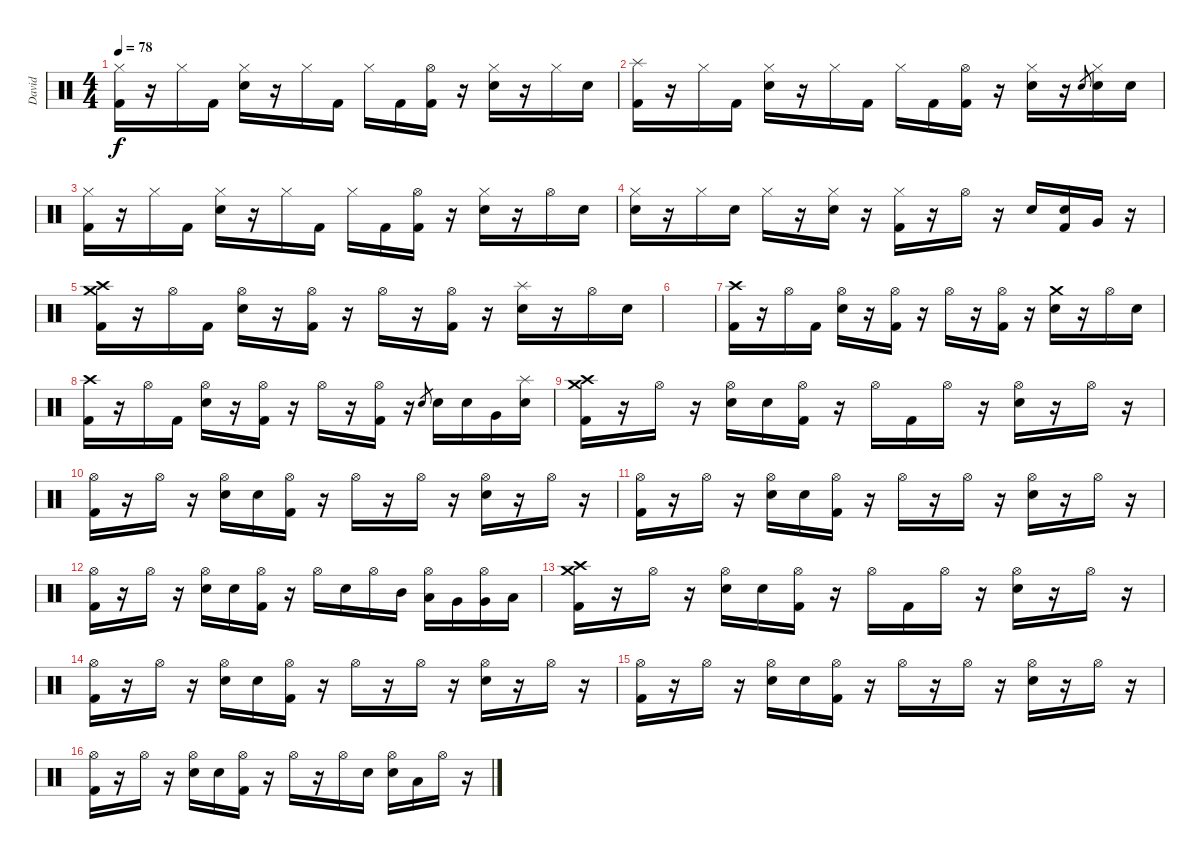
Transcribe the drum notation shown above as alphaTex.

\track ("David" "David") {instrument percussion}
\staff {score}
\articulation defaults
\ts (4 4)
\tempo 78
\clef neutral
\ks c
("Hi-Hat (closed)" "Kick (hit) 2").16{dy f} r.16 "Hi-Hat (closed)".16 "Kick (hit) 2".16 ("Hi-Hat (closed)" "Snare (hit) 2").16 r.16 "Hi-Hat (closed)".16 "Kick (hit) 2".16 "Hi-Hat (closed)".16 "Kick (hit) 2".16 ("Hi-Hat (open)" "Kick (hit) 2").16 r.16 ("Hi-Hat (closed)" "Snare (hit) 2").16 r.16 "Hi-Hat (closed)".16 "Snare (hit) 2".16 |
("Splash (hit)" "Kick (hit) 2").16 r.16 "Hi-Hat (closed)".16 "Kick (hit) 2".16 ("Hi-Hat (closed)" "Snare (hit) 2").16 r.16 "Hi-Hat (closed)".16 "Kick (hit) 2".16 "Hi-Hat (closed)".16 "Kick (hit) 2".16 ("Hi-Hat (open)" "Kick (hit) 2").16 r.16 ("Hi-Hat (closed)" "Snare (hit) 2").16 r.16 "Snare (hit) 2".8{gr} ("Hi-Hat (closed)" "Snare (hit) 2").16 "Snare (hit) 2".16 |
("Hi-Hat (closed)" "Kick (hit) 2").16 r.16 "Hi-Hat (closed)".16 "Kick (hit) 2".16 ("Hi-Hat (closed)" "Snare (hit) 2").16 r.16 "Hi-Hat (closed)".16 "Kick (hit) 2".16 "Hi-Hat (closed)".16 "Kick (hit) 2".16 ("Hi-Hat (open)" "Kick (hit) 2").16 r.16 ("Hi-Hat (closed)" "Snare (hit) 2").16 r.16 "Hi-Hat (open)".16 "Snare (hit) 2".16 |
("Hi-Hat (closed)" "Snare (hit) 2").16 r.16 "Hi-Hat (closed)".16 "Snare (hit) 2".16 "Hi-Hat (closed)".16 r.16 ("Hi-Hat (closed)" "Snare (hit) 2").16 r.16 ("Hi-Hat (closed)" "Kick (hit) 2").16 r.16 "Hi-Hat (open)".16 r.16 "Snare (hit) 2".16 ("Snare (hit) 2" "Kick (hit) 2").16 "Very Low Tom (hit)".16 r.16 |
("Crash high (hit)" "Crash medium (hit)" "Kick (hit) 2").16 r.16 "Hi-Hat (open)".16 "Kick (hit) 2".16 ("Hi-Hat (open)" "Snare (hit) 2").16 r.16 ("Hi-Hat (open)" "Kick (hit) 2").16 r.16 "Hi-Hat (open)".16 r.16 ("Hi-Hat (open)" "Kick (hit) 2").16 r.16 ("Splash (hit)" "Snare (hit) 2").16 r.16 "Hi-Hat (open)".16 "Snare (hit) 2".16 |
|
("Crash high (hit)" "Kick (hit) 2").16 r.16 "Hi-Hat (open)".16 "Kick (hit) 2".16 ("Hi-Hat (open)" "Snare (hit) 2").16 r.16 ("Hi-Hat (open)" "Kick (hit) 2").16 r.16 "Hi-Hat (open)".16 r.16 ("Hi-Hat (open)" "Kick (hit) 2").16 r.16 ("Crash medium (hit)" "Snare (hit) 2").16 r.16 "Hi-Hat (open)".16 "Snare (hit) 2".16 |
("Crash high (hit)" "Kick (hit) 2").16 r.16 "Hi-Hat (open)".16 "Kick (hit) 2".16 ("Hi-Hat (open)" "Snare (hit) 2").16 r.16 ("Hi-Hat (open)" "Kick (hit) 2").16 r.16 "Hi-Hat (open)".16 r.16 ("Hi-Hat (open)" "Kick (hit) 2").16 r.16 "Snare (hit) 2".8{gr} "Snare (hit) 2".16 "Snare (hit) 2".16 "Very Low Tom (hit)".16 ("Splash (hit)" "Snare (hit) 2"{x}).16 |
("Crash high (hit)" "Crash medium (hit)" "Kick (hit) 2").16 r.16 "Hi-Hat (open)".16 r.16 ("Hi-Hat (open)" "Snare (hit) 2").16 "Snare (hit) 2".16 ("Hi-Hat (open)" "Kick (hit) 2").16 r.16 "Hi-Hat (open)".16 "Kick (hit) 2".16 "Hi-Hat (open)".16 r.16 ("Hi-Hat (open)" "Snare (hit) 2").16 r.16 "Hi-Hat (open)".16 r.16 |
("Hi-Hat (open)" "Kick (hit) 2").16 r.16 "Hi-Hat (open)".16 r.16 ("Hi-Hat (open)" "Snare (hit) 2").16 "Snare (hit) 2".16 ("Hi-Hat (open)" "Kick (hit) 2").16 r.16 "Hi-Hat (open)".16 r.16 "Hi-Hat (open)".16 r.16 ("Hi-Hat (open)" "Snare (hit) 2").16 r.16 "Hi-Hat (open)".16 r.16 |
("Hi-Hat (open)" "Kick (hit) 2").16 r.16 "Hi-Hat (open)".16 r.16 ("Hi-Hat (open)" "Snare (hit) 2").16 "Snare (hit) 2".16 ("Hi-Hat (open)" "Kick (hit) 2").16 r.16 "Hi-Hat (open)".16 r.16 "Hi-Hat (open)".16 r.16 ("Hi-Hat (open)" "Snare (hit) 2").16 r.16 "Hi-Hat (open)".16 r.16 |
("Hi-Hat (open)" "Kick (hit) 2").16 r.16 "Hi-Hat (open)".16 r.16 ("Hi-Hat (open)" "Snare (hit) 2").16 "Snare (hit) 2".16 ("Hi-Hat (open)" "Kick (hit) 2").16 r.16 "Hi-Hat (open)".16 "Snare (hit) 2".16 "Hi-Hat (open)".16 "Mid Tom (hit)".16 ("Hi-Hat (open)" "Low Tom (hit)").16 "Very Low Tom (hit)".16 ("Hi-Hat (open)" "Very Low Tom (hit)").16 "Low Floor Tom (hit)".16 |
("Crash high (hit)" "Crash medium (hit)" "Kick (hit) 2").16 r.16 "Hi-Hat (open)".16 r.16 ("Hi-Hat (open)" "Snare (hit) 2").16 "Snare (hit) 2".16 ("Hi-Hat (open)" "Kick (hit) 2").16 r.16 "Hi-Hat (open)".16 "Kick (hit) 2".16 "Hi-Hat (open)".16 r.16 ("Hi-Hat (open)" "Snare (hit) 2").16 r.16 "Hi-Hat (open)".16 r.16 |
("Hi-Hat (open)" "Kick (hit) 2").16 r.16 "Hi-Hat (open)".16 r.16 ("Hi-Hat (open)" "Snare (hit) 2").16 "Snare (hit) 2".16 ("Hi-Hat (open)" "Kick (hit) 2").16 r.16 "Hi-Hat (open)".16 r.16 "Hi-Hat (open)".16 r.16 ("Hi-Hat (open)" "Snare (hit) 2").16 r.16 "Hi-Hat (open)".16 r.16 |
("Hi-Hat (open)" "Kick (hit) 2").16 r.16 "Hi-Hat (open)".16 r.16 ("Hi-Hat (open)" "Snare (hit) 2").16 "Snare (hit) 2".16 ("Hi-Hat (open)" "Kick (hit) 2").16 r.16 "Hi-Hat (open)".16 r.16 "Hi-Hat (open)".16 r.16 ("Hi-Hat (open)" "Snare (hit) 2").16 r.16 "Hi-Hat (open)".16 r.16 |
("Hi-Hat (open)" "Kick (hit) 2").16 r.16 "Hi-Hat (open)".16 r.16 ("Hi-Hat (open)" "Snare (hit) 2").16 "Snare (hit) 2".16 ("Hi-Hat (open)" "Kick (hit) 2").16 r.16 "Hi-Hat (open)".16 r.16 "Hi-Hat (open)".16 "Snare (hit) 2".16 ("Hi-Hat (open)" "Snare (hit) 2").16 "Low Tom (hit)".16 "Hi-Hat (open)".16 r.16
